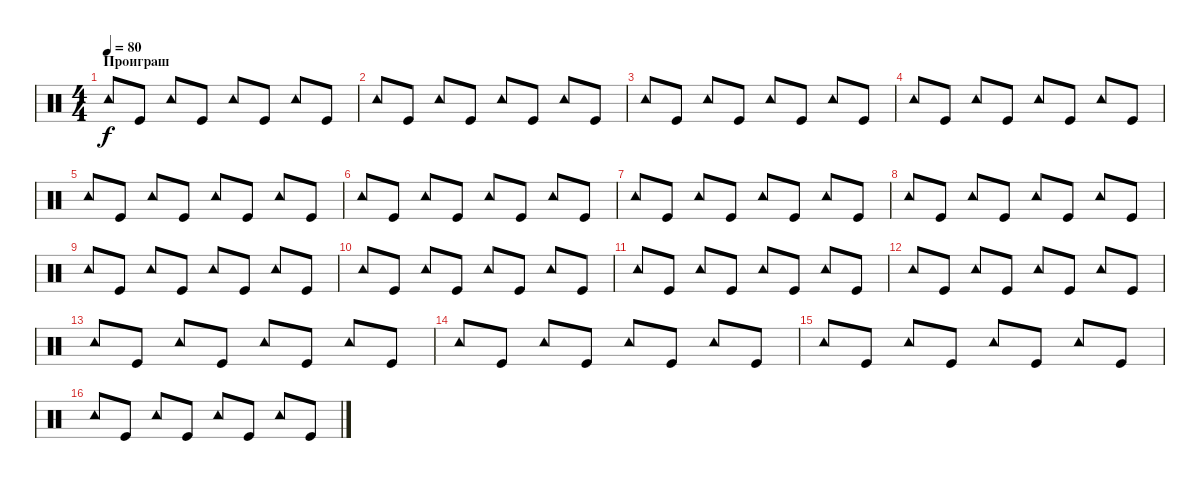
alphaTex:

\track "" {instrument percussion}
\staff {score}
\articulation defaults
\ts (4 4)
\section ("" "Проиграш")
\tempo 80
\clef neutral
\ks c "Tambourine (hit)".8{dy f} "Kick (hit)".8 "Tambourine (hit)".8 "Kick (hit)".8 "Tambourine (hit)".8 "Kick (hit)".8 "Tambourine (hit)".8 "Kick (hit)".8
|
"Tambourine (hit)".8 "Kick (hit)".8 "Tambourine (hit)".8 "Kick (hit)".8 "Tambourine (hit)".8 "Kick (hit)".8 "Tambourine (hit)".8 "Kick (hit)".8 |
"Tambourine (hit)".8 "Kick (hit)".8 "Tambourine (hit)".8 "Kick (hit)".8 "Tambourine (hit)".8 "Kick (hit)".8 "Tambourine (hit)".8 "Kick (hit)".8 |
"Tambourine (hit)".8 "Kick (hit)".8 "Tambourine (hit)".8 "Kick (hit)".8 "Tambourine (hit)".8 "Kick (hit)".8 "Tambourine (hit)".8 "Kick (hit)".8 |
"Tambourine (hit)".8 "Kick (hit)".8 "Tambourine (hit)".8 "Kick (hit)".8 "Tambourine (hit)".8 "Kick (hit)".8 "Tambourine (hit)".8 "Kick (hit)".8 |
"Tambourine (hit)".8 "Kick (hit)".8 "Tambourine (hit)".8 "Kick (hit)".8 "Tambourine (hit)".8 "Kick (hit)".8 "Tambourine (hit)".8 "Kick (hit)".8 |
"Tambourine (hit)".8 "Kick (hit)".8 "Tambourine (hit)".8 "Kick (hit)".8 "Tambourine (hit)".8 "Kick (hit)".8 "Tambourine (hit)".8 "Kick (hit)".8 |
"Tambourine (hit)".8 "Kick (hit)".8 "Tambourine (hit)".8 "Kick (hit)".8 "Tambourine (hit)".8 "Kick (hit)".8 "Tambourine (hit)".8 "Kick (hit)".8 |
"Tambourine (hit)".8 "Kick (hit)".8 "Tambourine (hit)".8 "Kick (hit)".8 "Tambourine (hit)".8 "Kick (hit)".8 "Tambourine (hit)".8 "Kick (hit)".8 |
"Tambourine (hit)".8 "Kick (hit)".8 "Tambourine (hit)".8 "Kick (hit)".8 "Tambourine (hit)".8 "Kick (hit)".8 "Tambourine (hit)".8 "Kick (hit)".8 |
"Tambourine (hit)".8 "Kick (hit)".8 "Tambourine (hit)".8 "Kick (hit)".8 "Tambourine (hit)".8 "Kick (hit)".8 "Tambourine (hit)".8 "Kick (hit)".8 |
"Tambourine (hit)".8 "Kick (hit)".8 "Tambourine (hit)".8 "Kick (hit)".8 "Tambourine (hit)".8 "Kick (hit)".8 "Tambourine (hit)".8 "Kick (hit)".8 |
"Tambourine (hit)".8 "Kick (hit)".8 "Tambourine (hit)".8 "Kick (hit)".8 "Tambourine (hit)".8 "Kick (hit)".8 "Tambourine (hit)".8 "Kick (hit)".8 |
"Tambourine (hit)".8 "Kick (hit)".8 "Tambourine (hit)".8 "Kick (hit)".8 "Tambourine (hit)".8 "Kick (hit)".8 "Tambourine (hit)".8 "Kick (hit)".8 |
"Tambourine (hit)".8 "Kick (hit)".8 "Tambourine (hit)".8 "Kick (hit)".8 "Tambourine (hit)".8 "Kick (hit)".8 "Tambourine (hit)".8 "Kick (hit)".8 |
"Tambourine (hit)".8 "Kick (hit)".8 "Tambourine (hit)".8 "Kick (hit)".8 "Tambourine (hit)".8 "Kick (hit)".8 "Tambourine (hit)".8 "Kick (hit)".8
